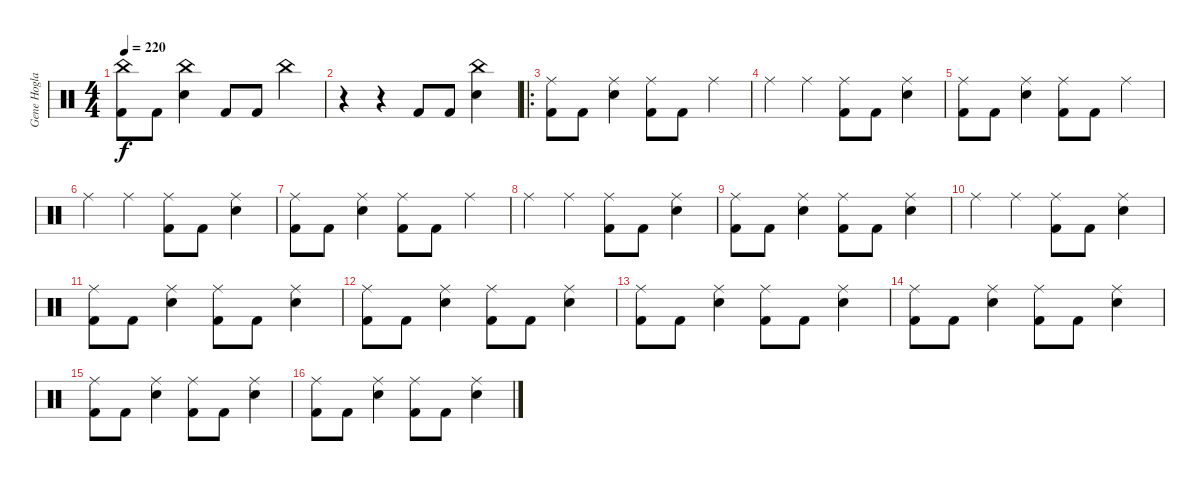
\track ("Gene Hoglan" "Gene Hogla") {instrument percussion}
\staff {score}
\articulation defaults
\ts (4 4)
\tempo 220
\clef neutral
\ks c
("China (hit)" "Kick (hit) 2").8{dy f} "Kick (hit) 2".8 ("China (hit)" "Electric Snare (hit)").4 "Kick (hit) 2".8 "Kick (hit) 2".8 "China (hit)".4 |
r.4 r.4 "Kick (hit) 2".8 "Kick (hit) 2".8 ("China (hit)" "Electric Snare (hit)").4 |
\ro
("Ride (middle)" "Kick (hit) 2").8 "Kick (hit) 2".8 ("Ride (middle)" "Electric Snare (hit)").4 ("Ride (middle)" "Kick (hit) 2").8 "Kick (hit) 2".8 "Ride (middle)".4 |
"Ride (middle)".4 "Ride (middle)".4 ("Ride (middle)" "Kick (hit) 2").8 "Kick (hit) 2".8 ("Ride (middle)" "Electric Snare (hit)").4 |
("Ride (middle)" "Kick (hit) 2").8 "Kick (hit) 2".8 ("Ride (middle)" "Electric Snare (hit)").4 ("Ride (middle)" "Kick (hit) 2").8 "Kick (hit) 2".8 "Ride (middle)".4 |
"Ride (middle)".4 "Ride (middle)".4 ("Ride (middle)" "Kick (hit) 2").8 "Kick (hit) 2".8 ("Ride (middle)" "Electric Snare (hit)").4 |
("Ride (middle)" "Kick (hit) 2").8 "Kick (hit) 2".8 ("Ride (middle)" "Electric Snare (hit)").4 ("Ride (middle)" "Kick (hit) 2").8 "Kick (hit) 2".8 "Ride (middle)".4 |
"Ride (middle)".4 "Ride (middle)".4 ("Ride (middle)" "Kick (hit) 2").8 "Kick (hit) 2".8 ("Ride (middle)" "Electric Snare (hit)").4 |
("Ride (middle)" "Kick (hit) 2").8 "Kick (hit) 2".8 ("Ride (middle)" "Electric Snare (hit)").4 ("Ride (middle)" "Kick (hit) 2").8 "Kick (hit) 2".8 ("Ride (middle)" "Electric Snare (hit)").4 |
"Ride (middle)".4 "Ride (middle)".4 ("Ride (middle)" "Kick (hit) 2").8 "Kick (hit) 2".8 ("Ride (middle)" "Electric Snare (hit)").4 |
("Ride (middle)" "Kick (hit) 2").8 "Kick (hit) 2".8 ("Ride (middle)" "Electric Snare (hit)").4 ("Ride (middle)" "Kick (hit) 2").8 "Kick (hit) 2".8 ("Ride (middle)" "Electric Snare (hit)").4 |
("Ride (middle)" "Kick (hit) 2").8 "Kick (hit) 2".8 ("Ride (middle)" "Electric Snare (hit)").4 ("Ride (middle)" "Kick (hit) 2").8 "Kick (hit) 2".8 ("Ride (middle)" "Electric Snare (hit)").4 |
("Ride (middle)" "Kick (hit) 2").8 "Kick (hit) 2".8 ("Ride (middle)" "Electric Snare (hit)").4 ("Ride (middle)" "Kick (hit) 2").8 "Kick (hit) 2".8 ("Ride (middle)" "Electric Snare (hit)").4 |
("Ride (middle)" "Kick (hit) 2").8 "Kick (hit) 2".8 ("Ride (middle)" "Electric Snare (hit)").4 ("Ride (middle)" "Kick (hit) 2").8 "Kick (hit) 2".8 ("Ride (middle)" "Electric Snare (hit)").4 |
("Ride (middle)" "Kick (hit) 2").8 "Kick (hit) 2".8 ("Ride (middle)" "Electric Snare (hit)").4 ("Ride (middle)" "Kick (hit) 2").8 "Kick (hit) 2".8 ("Ride (middle)" "Electric Snare (hit)").4 |
("Ride (middle)" "Kick (hit) 2").8 "Kick (hit) 2".8 ("Ride (middle)" "Electric Snare (hit)").4 ("Ride (middle)" "Kick (hit) 2").8 "Kick (hit) 2".8 ("Ride (middle)" "Electric Snare (hit)").4
